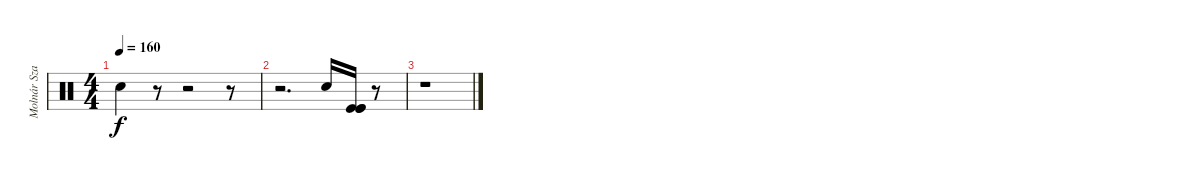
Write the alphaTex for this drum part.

\track ("Molnár Szabolcs" "Molnár Sza") {instrument percussion}
\staff {score}
\articulation defaults
\ts (4 4)
\tempo 160
\clef neutral
\ks c "Snare (hit) 2".4{dy f}
r.8 r.2 r.8 |
r.2{d} "Snare (hit) 2".16 ("Kick (hit)" "Kick (hit)" "Kick (hit)").16 r.8 |
r.1
